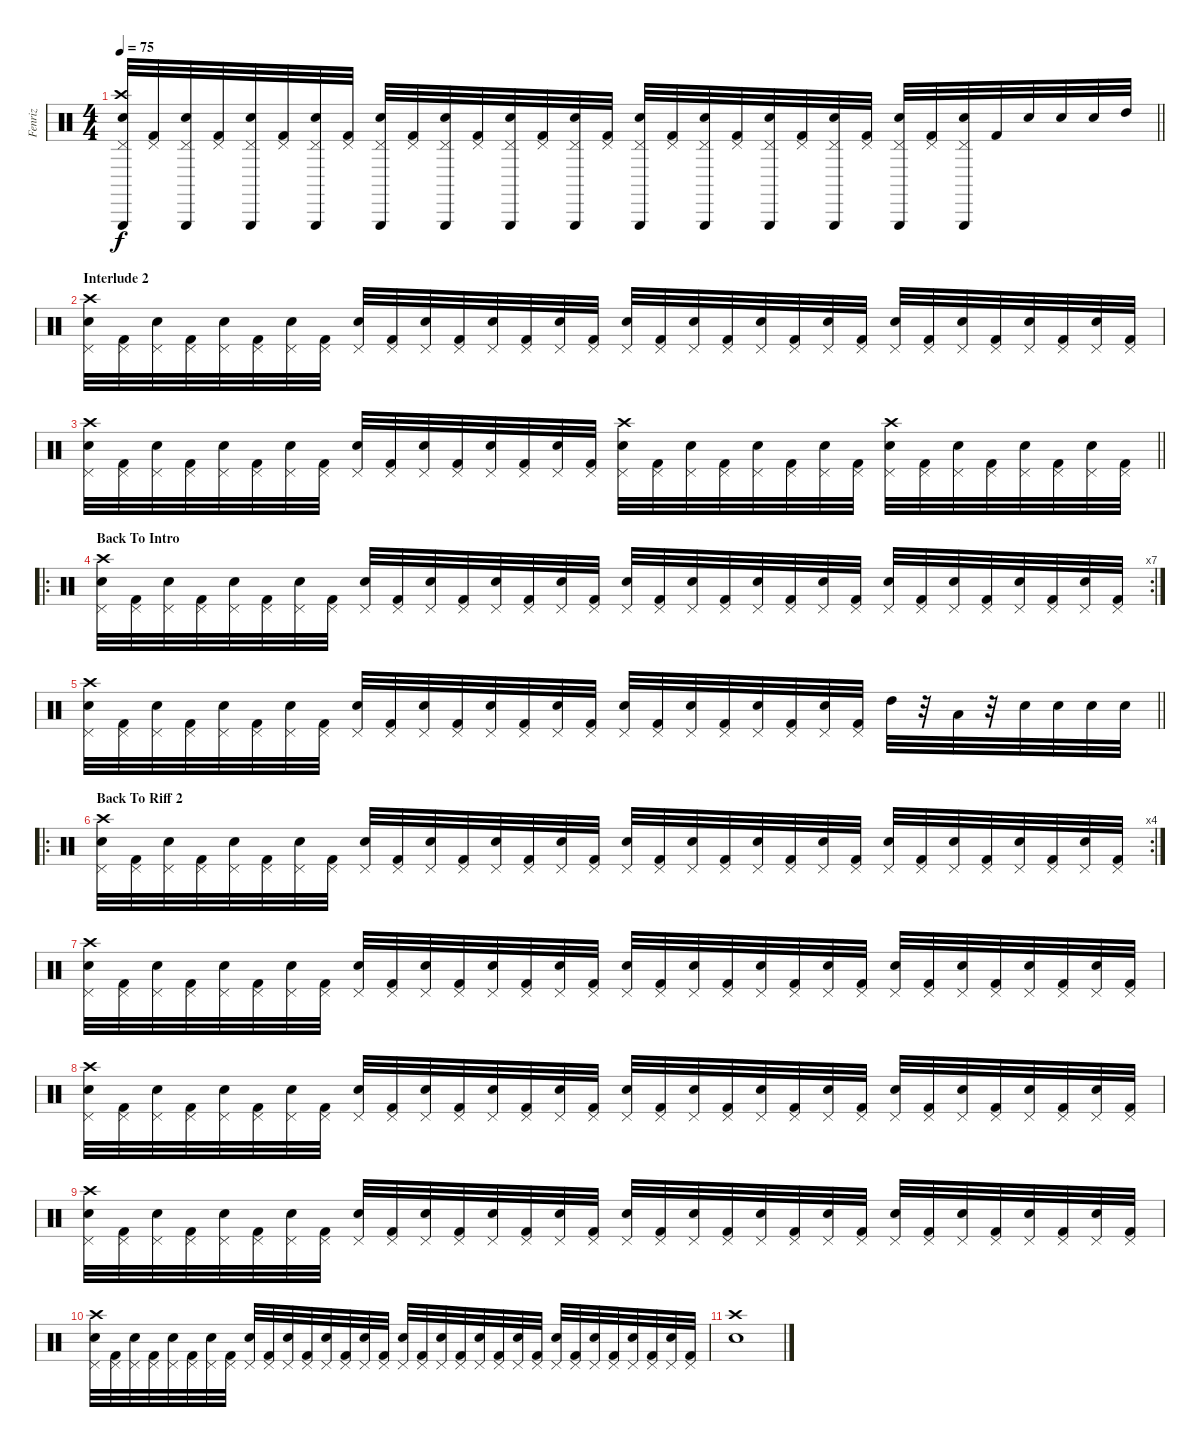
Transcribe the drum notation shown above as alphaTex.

\track ("Fenriz" "Fenriz") {instrument percussion}
\staff {score}
\articulation defaults
\ts (4 4)
\tempo 75
\clef neutral
\barLineRight lightlight
\ks c
("Crash high (hit)" "Pedal Hi-Hat (hit)" "Snare (hit) 2" "Triangle (hit)").32{dy f} ("Pedal Hi-Hat (hit)" "Kick (hit) 2").32 ("Pedal Hi-Hat (hit)" "Snare (hit) 2" "Triangle (hit)").32 ("Pedal Hi-Hat (hit)" "Kick (hit) 2").32 ("Pedal Hi-Hat (hit)" "Snare (hit) 2" "Triangle (hit)").32 ("Pedal Hi-Hat (hit)" "Kick (hit) 2").32 ("Pedal Hi-Hat (hit)" "Snare (hit) 2" "Triangle (hit)").32 ("Pedal Hi-Hat (hit)" "Kick (hit) 2").32 ("Pedal Hi-Hat (hit)" "Snare (hit) 2" "Triangle (hit)").32 ("Pedal Hi-Hat (hit)" "Kick (hit) 2").32 ("Pedal Hi-Hat (hit)" "Snare (hit) 2" "Triangle (hit)").32 ("Pedal Hi-Hat (hit)" "Kick (hit) 2").32 ("Pedal Hi-Hat (hit)" "Snare (hit) 2" "Triangle (hit)").32 ("Pedal Hi-Hat (hit)" "Kick (hit) 2").32 ("Pedal Hi-Hat (hit)" "Snare (hit) 2" "Triangle (hit)").32 ("Pedal Hi-Hat (hit)" "Kick (hit) 2").32 ("Pedal Hi-Hat (hit)" "Snare (hit) 2" "Triangle (hit)").32 ("Pedal Hi-Hat (hit)" "Kick (hit) 2").32 ("Pedal Hi-Hat (hit)" "Snare (hit) 2" "Triangle (hit)").32 ("Pedal Hi-Hat (hit)" "Kick (hit) 2").32 ("Pedal Hi-Hat (hit)" "Snare (hit) 2" "Triangle (hit)").32 ("Pedal Hi-Hat (hit)" "Kick (hit) 2").32 ("Pedal Hi-Hat (hit)" "Snare (hit) 2" "Triangle (hit)").32 ("Pedal Hi-Hat (hit)" "Kick (hit) 2").32 ("Pedal Hi-Hat (hit)" "Snare (hit) 2" "Triangle (hit)").32 ("Pedal Hi-Hat (hit)" "Kick (hit) 2").32 ("Pedal Hi-Hat (hit)" "Snare (hit) 2" "Triangle (hit)").32 "Kick (hit) 2".32 "Snare (hit) 2".32 "Snare (hit) 2".32 "Snare (hit) 2".32 "High Tom (hit)".32 |
\section ("" "Interlude 2")
("Crash high (hit)" "Pedal Hi-Hat (hit)" "Snare (hit) 2").32 ("Pedal Hi-Hat (hit)" "Kick (hit) 2").32 ("Pedal Hi-Hat (hit)" "Snare (hit) 2").32 ("Pedal Hi-Hat (hit)" "Kick (hit) 2").32 ("Pedal Hi-Hat (hit)" "Snare (hit) 2").32 ("Pedal Hi-Hat (hit)" "Kick (hit) 2").32 ("Pedal Hi-Hat (hit)" "Snare (hit) 2").32 ("Pedal Hi-Hat (hit)" "Kick (hit) 2").32 ("Pedal Hi-Hat (hit)" "Snare (hit) 2").32 ("Pedal Hi-Hat (hit)" "Kick (hit) 2").32 ("Pedal Hi-Hat (hit)" "Snare (hit) 2").32 ("Pedal Hi-Hat (hit)" "Kick (hit) 2").32 ("Pedal Hi-Hat (hit)" "Snare (hit) 2").32 ("Pedal Hi-Hat (hit)" "Kick (hit) 2").32 ("Pedal Hi-Hat (hit)" "Snare (hit) 2").32 ("Pedal Hi-Hat (hit)" "Kick (hit) 2").32 ("Pedal Hi-Hat (hit)" "Snare (hit) 2").32 ("Pedal Hi-Hat (hit)" "Kick (hit) 2").32 ("Pedal Hi-Hat (hit)" "Snare (hit) 2").32 ("Pedal Hi-Hat (hit)" "Kick (hit) 2").32 ("Pedal Hi-Hat (hit)" "Snare (hit) 2").32 ("Pedal Hi-Hat (hit)" "Kick (hit) 2").32 ("Pedal Hi-Hat (hit)" "Snare (hit) 2").32 ("Pedal Hi-Hat (hit)" "Kick (hit) 2").32 ("Pedal Hi-Hat (hit)" "Snare (hit) 2").32 ("Pedal Hi-Hat (hit)" "Kick (hit) 2").32 ("Pedal Hi-Hat (hit)" "Snare (hit) 2").32 ("Pedal Hi-Hat (hit)" "Kick (hit) 2").32 ("Pedal Hi-Hat (hit)" "Snare (hit) 2").32 ("Pedal Hi-Hat (hit)" "Kick (hit) 2").32 ("Pedal Hi-Hat (hit)" "Snare (hit) 2").32 ("Pedal Hi-Hat (hit)" "Kick (hit) 2").32 |
\barLineRight lightlight
("Crash high (hit)" "Pedal Hi-Hat (hit)" "Snare (hit) 2").32 ("Pedal Hi-Hat (hit)" "Kick (hit) 2").32 ("Pedal Hi-Hat (hit)" "Snare (hit) 2").32 ("Pedal Hi-Hat (hit)" "Kick (hit) 2").32 ("Pedal Hi-Hat (hit)" "Snare (hit) 2").32 ("Pedal Hi-Hat (hit)" "Kick (hit) 2").32 ("Pedal Hi-Hat (hit)" "Snare (hit) 2").32 ("Pedal Hi-Hat (hit)" "Kick (hit) 2").32 ("Pedal Hi-Hat (hit)" "Snare (hit) 2").32 ("Pedal Hi-Hat (hit)" "Kick (hit) 2").32 ("Pedal Hi-Hat (hit)" "Snare (hit) 2").32 ("Pedal Hi-Hat (hit)" "Kick (hit) 2").32 ("Pedal Hi-Hat (hit)" "Snare (hit) 2").32 ("Pedal Hi-Hat (hit)" "Kick (hit) 2").32 ("Pedal Hi-Hat (hit)" "Snare (hit) 2").32 ("Pedal Hi-Hat (hit)" "Kick (hit) 2").32 ("Crash high (hit)" "Pedal Hi-Hat (hit)" "Snare (hit) 2").32 ("Pedal Hi-Hat (hit)" "Kick (hit) 2").32 ("Pedal Hi-Hat (hit)" "Snare (hit) 2").32 ("Pedal Hi-Hat (hit)" "Kick (hit) 2").32 ("Pedal Hi-Hat (hit)" "Snare (hit) 2").32 ("Pedal Hi-Hat (hit)" "Kick (hit) 2").32 ("Pedal Hi-Hat (hit)" "Snare (hit) 2").32 ("Pedal Hi-Hat (hit)" "Kick (hit) 2").32 ("Crash high (hit)" "Pedal Hi-Hat (hit)" "Snare (hit) 2").32 ("Pedal Hi-Hat (hit)" "Kick (hit) 2").32 ("Pedal Hi-Hat (hit)" "Snare (hit) 2").32 ("Pedal Hi-Hat (hit)" "Kick (hit) 2").32 ("Pedal Hi-Hat (hit)" "Snare (hit) 2").32 ("Pedal Hi-Hat (hit)" "Kick (hit) 2").32 ("Pedal Hi-Hat (hit)" "Snare (hit) 2").32 ("Pedal Hi-Hat (hit)" "Kick (hit) 2").32 |
\ro
\rc 7
\section ("" "Back To Intro")
("Crash high (hit)" "Pedal Hi-Hat (hit)" "Snare (hit) 2").32 ("Pedal Hi-Hat (hit)" "Kick (hit) 2").32 ("Pedal Hi-Hat (hit)" "Snare (hit) 2").32 ("Pedal Hi-Hat (hit)" "Kick (hit) 2").32 ("Pedal Hi-Hat (hit)" "Snare (hit) 2").32 ("Pedal Hi-Hat (hit)" "Kick (hit) 2").32 ("Pedal Hi-Hat (hit)" "Snare (hit) 2").32 ("Pedal Hi-Hat (hit)" "Kick (hit) 2").32 ("Pedal Hi-Hat (hit)" "Snare (hit) 2").32 ("Pedal Hi-Hat (hit)" "Kick (hit) 2").32 ("Pedal Hi-Hat (hit)" "Snare (hit) 2").32 ("Pedal Hi-Hat (hit)" "Kick (hit) 2").32 ("Pedal Hi-Hat (hit)" "Snare (hit) 2").32 ("Pedal Hi-Hat (hit)" "Kick (hit) 2").32 ("Pedal Hi-Hat (hit)" "Snare (hit) 2").32 ("Pedal Hi-Hat (hit)" "Kick (hit) 2").32 ("Pedal Hi-Hat (hit)" "Snare (hit) 2").32 ("Pedal Hi-Hat (hit)" "Kick (hit) 2").32 ("Pedal Hi-Hat (hit)" "Snare (hit) 2").32 ("Pedal Hi-Hat (hit)" "Kick (hit) 2").32 ("Pedal Hi-Hat (hit)" "Snare (hit) 2").32 ("Pedal Hi-Hat (hit)" "Kick (hit) 2").32 ("Pedal Hi-Hat (hit)" "Snare (hit) 2").32 ("Pedal Hi-Hat (hit)" "Kick (hit) 2").32 ("Pedal Hi-Hat (hit)" "Snare (hit) 2").32 ("Pedal Hi-Hat (hit)" "Kick (hit) 2").32 ("Pedal Hi-Hat (hit)" "Snare (hit) 2").32 ("Pedal Hi-Hat (hit)" "Kick (hit) 2").32 ("Pedal Hi-Hat (hit)" "Snare (hit) 2").32 ("Pedal Hi-Hat (hit)" "Kick (hit) 2").32 ("Pedal Hi-Hat (hit)" "Snare (hit) 2").32 ("Pedal Hi-Hat (hit)" "Kick (hit) 2").32 |
\barLineRight lightlight
("Crash high (hit)" "Pedal Hi-Hat (hit)" "Snare (hit) 2").32 ("Pedal Hi-Hat (hit)" "Kick (hit) 2").32 ("Pedal Hi-Hat (hit)" "Snare (hit) 2").32 ("Pedal Hi-Hat (hit)" "Kick (hit) 2").32 ("Pedal Hi-Hat (hit)" "Snare (hit) 2").32 ("Pedal Hi-Hat (hit)" "Kick (hit) 2").32 ("Pedal Hi-Hat (hit)" "Snare (hit) 2").32 ("Pedal Hi-Hat (hit)" "Kick (hit) 2").32 ("Pedal Hi-Hat (hit)" "Snare (hit) 2").32 ("Pedal Hi-Hat (hit)" "Kick (hit) 2").32 ("Pedal Hi-Hat (hit)" "Snare (hit) 2").32 ("Pedal Hi-Hat (hit)" "Kick (hit) 2").32 ("Pedal Hi-Hat (hit)" "Snare (hit) 2").32 ("Pedal Hi-Hat (hit)" "Kick (hit) 2").32 ("Pedal Hi-Hat (hit)" "Snare (hit) 2").32 ("Pedal Hi-Hat (hit)" "Kick (hit) 2").32 ("Pedal Hi-Hat (hit)" "Snare (hit) 2").32 ("Pedal Hi-Hat (hit)" "Kick (hit) 2").32 ("Pedal Hi-Hat (hit)" "Snare (hit) 2").32 ("Pedal Hi-Hat (hit)" "Kick (hit) 2").32 ("Pedal Hi-Hat (hit)" "Snare (hit) 2").32 ("Pedal Hi-Hat (hit)" "Kick (hit) 2").32 ("Pedal Hi-Hat (hit)" "Snare (hit) 2").32 ("Pedal Hi-Hat (hit)" "Kick (hit) 2").32 "High Tom (hit)".32 r.32 "Low Tom (hit)".32 r.32 "Electric Snare (hit)".32 "Electric Snare (hit)".32 "Electric Snare (hit)".32 "Electric Snare (hit)".32 |
\ro
\rc 4
\section ("" "Back To Riff 2")
("Crash high (hit)" "Pedal Hi-Hat (hit)" "Snare (hit) 2").32 ("Pedal Hi-Hat (hit)" "Kick (hit) 2").32 ("Pedal Hi-Hat (hit)" "Snare (hit) 2").32 ("Pedal Hi-Hat (hit)" "Kick (hit) 2").32 ("Pedal Hi-Hat (hit)" "Snare (hit) 2").32 ("Pedal Hi-Hat (hit)" "Kick (hit) 2").32 ("Pedal Hi-Hat (hit)" "Snare (hit) 2").32 ("Pedal Hi-Hat (hit)" "Kick (hit) 2").32 ("Pedal Hi-Hat (hit)" "Snare (hit) 2").32 ("Pedal Hi-Hat (hit)" "Kick (hit) 2").32 ("Pedal Hi-Hat (hit)" "Snare (hit) 2").32 ("Pedal Hi-Hat (hit)" "Kick (hit) 2").32 ("Pedal Hi-Hat (hit)" "Snare (hit) 2").32 ("Pedal Hi-Hat (hit)" "Kick (hit) 2").32 ("Pedal Hi-Hat (hit)" "Snare (hit) 2").32 ("Pedal Hi-Hat (hit)" "Kick (hit) 2").32 ("Pedal Hi-Hat (hit)" "Snare (hit) 2").32 ("Pedal Hi-Hat (hit)" "Kick (hit) 2").32 ("Pedal Hi-Hat (hit)" "Snare (hit) 2").32 ("Pedal Hi-Hat (hit)" "Kick (hit) 2").32 ("Pedal Hi-Hat (hit)" "Snare (hit) 2").32 ("Pedal Hi-Hat (hit)" "Kick (hit) 2").32 ("Pedal Hi-Hat (hit)" "Snare (hit) 2").32 ("Pedal Hi-Hat (hit)" "Kick (hit) 2").32 ("Pedal Hi-Hat (hit)" "Snare (hit) 2").32 ("Pedal Hi-Hat (hit)" "Kick (hit) 2").32 ("Pedal Hi-Hat (hit)" "Snare (hit) 2").32 ("Pedal Hi-Hat (hit)" "Kick (hit) 2").32 ("Pedal Hi-Hat (hit)" "Snare (hit) 2").32 ("Pedal Hi-Hat (hit)" "Kick (hit) 2").32 ("Pedal Hi-Hat (hit)" "Snare (hit) 2").32 ("Pedal Hi-Hat (hit)" "Kick (hit) 2").32 |
("Crash high (hit)" "Pedal Hi-Hat (hit)" "Snare (hit) 2").32 ("Pedal Hi-Hat (hit)" "Kick (hit) 2").32 ("Pedal Hi-Hat (hit)" "Snare (hit) 2").32 ("Pedal Hi-Hat (hit)" "Kick (hit) 2").32 ("Pedal Hi-Hat (hit)" "Snare (hit) 2").32 ("Pedal Hi-Hat (hit)" "Kick (hit) 2").32 ("Pedal Hi-Hat (hit)" "Snare (hit) 2").32 ("Pedal Hi-Hat (hit)" "Kick (hit) 2").32 ("Pedal Hi-Hat (hit)" "Snare (hit) 2").32 ("Pedal Hi-Hat (hit)" "Kick (hit) 2").32 ("Pedal Hi-Hat (hit)" "Snare (hit) 2").32 ("Pedal Hi-Hat (hit)" "Kick (hit) 2").32 ("Pedal Hi-Hat (hit)" "Snare (hit) 2").32 ("Pedal Hi-Hat (hit)" "Kick (hit) 2").32 ("Pedal Hi-Hat (hit)" "Snare (hit) 2").32 ("Pedal Hi-Hat (hit)" "Kick (hit) 2").32 ("Pedal Hi-Hat (hit)" "Snare (hit) 2").32 ("Pedal Hi-Hat (hit)" "Kick (hit) 2").32 ("Pedal Hi-Hat (hit)" "Snare (hit) 2").32 ("Pedal Hi-Hat (hit)" "Kick (hit) 2").32 ("Pedal Hi-Hat (hit)" "Snare (hit) 2").32 ("Pedal Hi-Hat (hit)" "Kick (hit) 2").32 ("Pedal Hi-Hat (hit)" "Snare (hit) 2").32 ("Pedal Hi-Hat (hit)" "Kick (hit) 2").32 ("Pedal Hi-Hat (hit)" "Snare (hit) 2").32 ("Pedal Hi-Hat (hit)" "Kick (hit) 2").32 ("Pedal Hi-Hat (hit)" "Snare (hit) 2").32 ("Pedal Hi-Hat (hit)" "Kick (hit) 2").32 ("Pedal Hi-Hat (hit)" "Snare (hit) 2").32 ("Pedal Hi-Hat (hit)" "Kick (hit) 2").32 ("Pedal Hi-Hat (hit)" "Snare (hit) 2").32 ("Pedal Hi-Hat (hit)" "Kick (hit) 2").32 |
("Crash high (hit)" "Pedal Hi-Hat (hit)" "Snare (hit) 2").32 ("Pedal Hi-Hat (hit)" "Kick (hit) 2").32 ("Pedal Hi-Hat (hit)" "Snare (hit) 2").32 ("Pedal Hi-Hat (hit)" "Kick (hit) 2").32 ("Pedal Hi-Hat (hit)" "Snare (hit) 2").32 ("Pedal Hi-Hat (hit)" "Kick (hit) 2").32 ("Pedal Hi-Hat (hit)" "Snare (hit) 2").32 ("Pedal Hi-Hat (hit)" "Kick (hit) 2").32 ("Pedal Hi-Hat (hit)" "Snare (hit) 2").32 ("Pedal Hi-Hat (hit)" "Kick (hit) 2").32 ("Pedal Hi-Hat (hit)" "Snare (hit) 2").32 ("Pedal Hi-Hat (hit)" "Kick (hit) 2").32 ("Pedal Hi-Hat (hit)" "Snare (hit) 2").32 ("Pedal Hi-Hat (hit)" "Kick (hit) 2").32 ("Pedal Hi-Hat (hit)" "Snare (hit) 2").32 ("Pedal Hi-Hat (hit)" "Kick (hit) 2").32 ("Pedal Hi-Hat (hit)" "Snare (hit) 2").32 ("Pedal Hi-Hat (hit)" "Kick (hit) 2").32 ("Pedal Hi-Hat (hit)" "Snare (hit) 2").32 ("Pedal Hi-Hat (hit)" "Kick (hit) 2").32 ("Pedal Hi-Hat (hit)" "Snare (hit) 2").32 ("Pedal Hi-Hat (hit)" "Kick (hit) 2").32 ("Pedal Hi-Hat (hit)" "Snare (hit) 2").32 ("Pedal Hi-Hat (hit)" "Kick (hit) 2").32 ("Pedal Hi-Hat (hit)" "Snare (hit) 2").32 ("Pedal Hi-Hat (hit)" "Kick (hit) 2").32 ("Pedal Hi-Hat (hit)" "Snare (hit) 2").32 ("Pedal Hi-Hat (hit)" "Kick (hit) 2").32 ("Pedal Hi-Hat (hit)" "Snare (hit) 2").32 ("Pedal Hi-Hat (hit)" "Kick (hit) 2").32 ("Pedal Hi-Hat (hit)" "Snare (hit) 2").32 ("Pedal Hi-Hat (hit)" "Kick (hit) 2").32 |
("Crash high (hit)" "Pedal Hi-Hat (hit)" "Snare (hit) 2").32 ("Pedal Hi-Hat (hit)" "Kick (hit) 2").32 ("Pedal Hi-Hat (hit)" "Snare (hit) 2").32 ("Pedal Hi-Hat (hit)" "Kick (hit) 2").32 ("Pedal Hi-Hat (hit)" "Snare (hit) 2").32 ("Pedal Hi-Hat (hit)" "Kick (hit) 2").32 ("Pedal Hi-Hat (hit)" "Snare (hit) 2").32 ("Pedal Hi-Hat (hit)" "Kick (hit) 2").32 ("Pedal Hi-Hat (hit)" "Snare (hit) 2").32 ("Pedal Hi-Hat (hit)" "Kick (hit) 2").32 ("Pedal Hi-Hat (hit)" "Snare (hit) 2").32 ("Pedal Hi-Hat (hit)" "Kick (hit) 2").32 ("Pedal Hi-Hat (hit)" "Snare (hit) 2").32 ("Pedal Hi-Hat (hit)" "Kick (hit) 2").32 ("Pedal Hi-Hat (hit)" "Snare (hit) 2").32 ("Pedal Hi-Hat (hit)" "Kick (hit) 2").32 ("Pedal Hi-Hat (hit)" "Snare (hit) 2").32 ("Pedal Hi-Hat (hit)" "Kick (hit) 2").32 ("Pedal Hi-Hat (hit)" "Snare (hit) 2").32 ("Pedal Hi-Hat (hit)" "Kick (hit) 2").32 ("Pedal Hi-Hat (hit)" "Snare (hit) 2").32 ("Pedal Hi-Hat (hit)" "Kick (hit) 2").32 ("Pedal Hi-Hat (hit)" "Snare (hit) 2").32 ("Pedal Hi-Hat (hit)" "Kick (hit) 2").32 ("Pedal Hi-Hat (hit)" "Snare (hit) 2").32 ("Pedal Hi-Hat (hit)" "Kick (hit) 2").32 ("Pedal Hi-Hat (hit)" "Snare (hit) 2").32 ("Pedal Hi-Hat (hit)" "Kick (hit) 2").32 ("Pedal Hi-Hat (hit)" "Snare (hit) 2").32 ("Pedal Hi-Hat (hit)" "Kick (hit) 2").32 ("Pedal Hi-Hat (hit)" "Snare (hit) 2").32 ("Pedal Hi-Hat (hit)" "Kick (hit) 2").32 |
("Crash high (hit)" "Pedal Hi-Hat (hit)" "Snare (hit) 2").32 ("Pedal Hi-Hat (hit)" "Kick (hit) 2").32 ("Pedal Hi-Hat (hit)" "Snare (hit) 2").32 ("Pedal Hi-Hat (hit)" "Kick (hit) 2").32 ("Pedal Hi-Hat (hit)" "Snare (hit) 2").32 ("Pedal Hi-Hat (hit)" "Kick (hit) 2").32 ("Pedal Hi-Hat (hit)" "Snare (hit) 2").32 ("Pedal Hi-Hat (hit)" "Kick (hit) 2").32 ("Pedal Hi-Hat (hit)" "Snare (hit) 2").32 ("Pedal Hi-Hat (hit)" "Kick (hit) 2").32 ("Pedal Hi-Hat (hit)" "Snare (hit) 2").32 ("Pedal Hi-Hat (hit)" "Kick (hit) 2").32 ("Pedal Hi-Hat (hit)" "Snare (hit) 2").32 ("Pedal Hi-Hat (hit)" "Kick (hit) 2").32 ("Pedal Hi-Hat (hit)" "Snare (hit) 2").32 ("Pedal Hi-Hat (hit)" "Kick (hit) 2").32 ("Pedal Hi-Hat (hit)" "Snare (hit) 2").32 ("Pedal Hi-Hat (hit)" "Kick (hit) 2").32 ("Pedal Hi-Hat (hit)" "Snare (hit) 2").32 ("Pedal Hi-Hat (hit)" "Kick (hit) 2").32 ("Pedal Hi-Hat (hit)" "Snare (hit) 2").32 ("Pedal Hi-Hat (hit)" "Kick (hit) 2").32 ("Pedal Hi-Hat (hit)" "Snare (hit) 2").32 ("Pedal Hi-Hat (hit)" "Kick (hit) 2").32 ("Pedal Hi-Hat (hit)" "Snare (hit) 2").32 ("Pedal Hi-Hat (hit)" "Kick (hit) 2").32 ("Pedal Hi-Hat (hit)" "Snare (hit) 2").32 ("Pedal Hi-Hat (hit)" "Kick (hit) 2").32 ("Pedal Hi-Hat (hit)" "Snare (hit) 2").32 ("Pedal Hi-Hat (hit)" "Kick (hit) 2").32 ("Pedal Hi-Hat (hit)" "Snare (hit) 2").32 ("Pedal Hi-Hat (hit)" "Kick (hit) 2").32 |
("Snare (hit) 2" "Crash high (hit)").1
